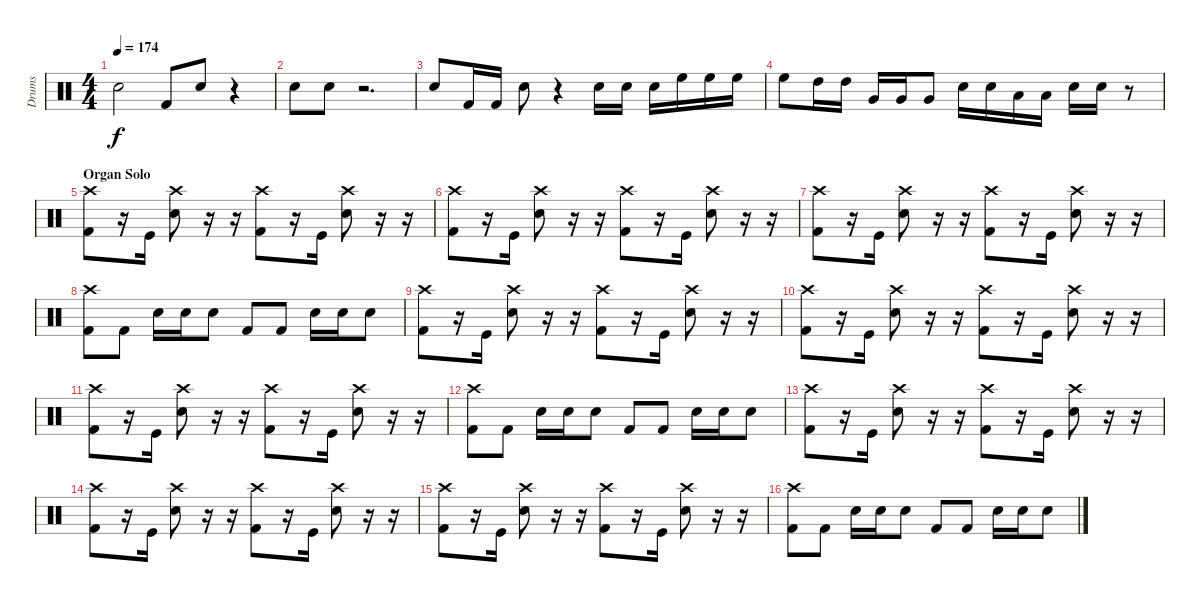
\track ("Drums" "Drums") {instrument percussion}
\staff {score}
\articulation defaults
\ts (4 4)
\tempo 174
\clef neutral
\ks c "Snare (hit) 2".2{dy f} "Kick (hit) 2".8 "Snare (hit) 2".8
r.4 |
"Snare (hit) 2".8 "Snare (hit) 2".8 r.2{d} |
"Snare (hit) 2".8 "Kick (hit) 2".16 "Kick (hit) 2".16 "Snare (hit) 2".8 r.4 "Snare (hit) 2".16 "Snare (hit) 2".16 "Snare (hit) 2".16 "High Floor Tom (hit)".16 "High Floor Tom (hit)".16 "High Floor Tom (hit)".16 |
"High Floor Tom (hit)".8 "High Tom (hit)".16 "High Tom (hit)".16 "Very Low Tom (hit)".16 "Very Low Tom (hit)".16 "Very Low Tom (hit)".8 "Snare (hit) 2".16 "Snare (hit) 2".16 "Low Tom (hit)".16 "Low Tom (hit)".16 "Snare (hit) 2".16 "Snare (hit) 2".16 r.8 |
\section ("" "Organ Solo")
("Crash high (hit)" "Kick (hit) 2").8 r.16 "Kick (hit)".16 ("Crash high (hit)" "Snare (hit) 2").8 r.16 r.16 ("Crash high (hit)" "Kick (hit) 2").8 r.16 "Kick (hit)".16 ("Crash high (hit)" "Snare (hit) 2").8 r.16 r.16 |
("Crash high (hit)" "Kick (hit) 2").8 r.16 "Kick (hit)".16 ("Crash high (hit)" "Snare (hit) 2").8 r.16 r.16 ("Crash high (hit)" "Kick (hit) 2").8 r.16 "Kick (hit)".16 ("Crash high (hit)" "Snare (hit) 2").8 r.16 r.16 |
("Crash high (hit)" "Kick (hit) 2").8 r.16 "Kick (hit)".16 ("Crash high (hit)" "Snare (hit) 2").8 r.16 r.16 ("Crash high (hit)" "Kick (hit) 2").8 r.16 "Kick (hit)".16 ("Crash high (hit)" "Snare (hit) 2").8 r.16 r.16 |
("Crash high (hit)" "Kick (hit) 2").8 "Kick (hit) 2".8 "Snare (hit) 2".16 "Snare (hit) 2".16 "Snare (hit) 2".8 "Kick (hit) 2".8 "Kick (hit) 2".8 "Snare (hit) 2".16 "Snare (hit) 2".16 "Snare (hit) 2".8 |
("Crash high (hit)" "Kick (hit) 2").8 r.16 "Kick (hit)".16 ("Crash high (hit)" "Snare (hit) 2").8 r.16 r.16 ("Crash high (hit)" "Kick (hit) 2").8 r.16 "Kick (hit)".16 ("Crash high (hit)" "Snare (hit) 2").8 r.16 r.16 |
("Crash high (hit)" "Kick (hit) 2").8 r.16 "Kick (hit)".16 ("Crash high (hit)" "Snare (hit) 2").8 r.16 r.16 ("Crash high (hit)" "Kick (hit) 2").8 r.16 "Kick (hit)".16 ("Crash high (hit)" "Snare (hit) 2").8 r.16 r.16 |
("Crash high (hit)" "Kick (hit) 2").8 r.16 "Kick (hit)".16 ("Crash high (hit)" "Snare (hit) 2").8 r.16 r.16 ("Crash high (hit)" "Kick (hit) 2").8 r.16 "Kick (hit)".16 ("Crash high (hit)" "Snare (hit) 2").8 r.16 r.16 |
("Crash high (hit)" "Kick (hit) 2").8 "Kick (hit) 2".8 "Snare (hit) 2".16 "Snare (hit) 2".16 "Snare (hit) 2".8 "Kick (hit) 2".8 "Kick (hit) 2".8 "Snare (hit) 2".16 "Snare (hit) 2".16 "Snare (hit) 2".8 |
("Crash high (hit)" "Kick (hit) 2").8 r.16 "Kick (hit)".16 ("Crash high (hit)" "Snare (hit) 2").8 r.16 r.16 ("Crash high (hit)" "Kick (hit) 2").8 r.16 "Kick (hit)".16 ("Crash high (hit)" "Snare (hit) 2").8 r.16 r.16 |
("Crash high (hit)" "Kick (hit) 2").8 r.16 "Kick (hit)".16 ("Crash high (hit)" "Snare (hit) 2").8 r.16 r.16 ("Crash high (hit)" "Kick (hit) 2").8 r.16 "Kick (hit)".16 ("Crash high (hit)" "Snare (hit) 2").8 r.16 r.16 |
("Crash high (hit)" "Kick (hit) 2").8 r.16 "Kick (hit)".16 ("Crash high (hit)" "Snare (hit) 2").8 r.16 r.16 ("Crash high (hit)" "Kick (hit) 2").8 r.16 "Kick (hit)".16 ("Crash high (hit)" "Snare (hit) 2").8 r.16 r.16 |
("Crash high (hit)" "Kick (hit) 2").8 "Kick (hit) 2".8 "Snare (hit) 2".16 "Snare (hit) 2".16 "Snare (hit) 2".8 "Kick (hit) 2".8 "Kick (hit) 2".8 "Snare (hit) 2".16 "Snare (hit) 2".16 "Snare (hit) 2".8
